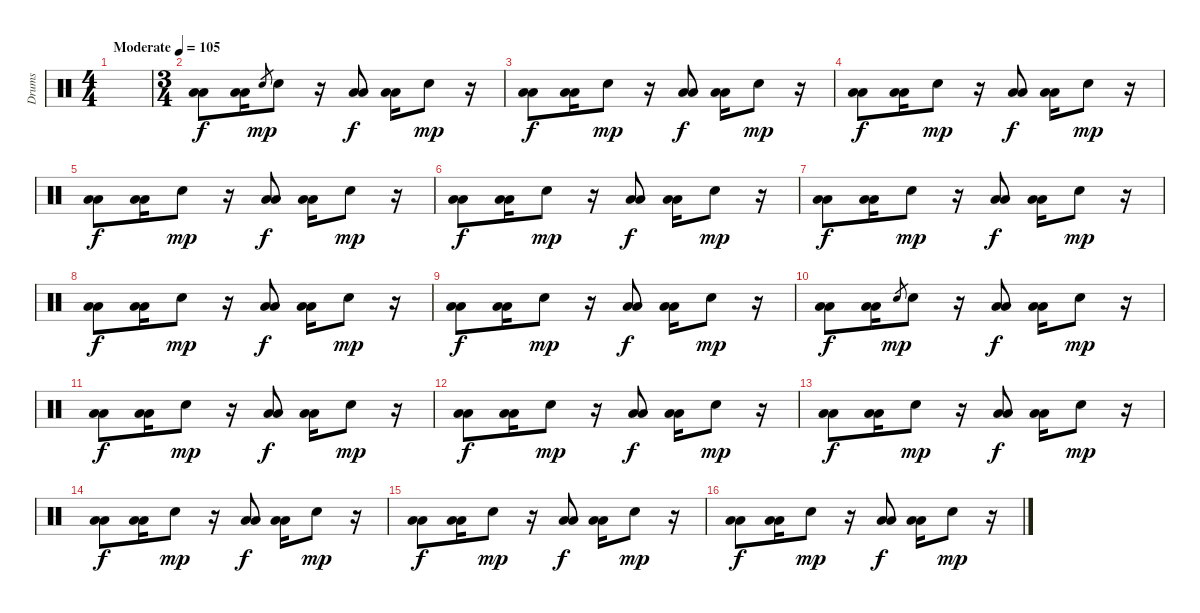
\track ("Drums" "Drums") {instrument percussion}
\staff {score}
\articulation defaults
\ts (4 4)
\tempo (105 "Moderate")
\clef neutral
\ks c
|
\ts (3 4)
("Low Floor Tom (hit)" "Low Floor Tom (hit)").8 ("Low Floor Tom (hit)" "Low Floor Tom (hit)").16 "Hand Clap (hit)".8{gr dy mp} "Hand Clap (hit)".8 r.16 ("Low Floor Tom (hit)" "Low Floor Tom (hit)").8{dy f} ("Low Floor Tom (hit)" "Low Floor Tom (hit)").16 "Hand Clap (hit)".8{dy mp} r.16 |
("Low Floor Tom (hit)" "Low Floor Tom (hit)").8{dy f} ("Low Floor Tom (hit)" "Low Floor Tom (hit)").16 "Hand Clap (hit)".8{dy mp} r.16 ("Low Floor Tom (hit)" "Low Floor Tom (hit)").8{dy f} ("Low Floor Tom (hit)" "Low Floor Tom (hit)").16 "Hand Clap (hit)".8{dy mp} r.16 |
("Low Floor Tom (hit)" "Low Floor Tom (hit)").8{dy f} ("Low Floor Tom (hit)" "Low Floor Tom (hit)").16 "Hand Clap (hit)".8{dy mp} r.16 ("Low Floor Tom (hit)" "Low Floor Tom (hit)").8{dy f} ("Low Floor Tom (hit)" "Low Floor Tom (hit)").16 "Hand Clap (hit)".8{dy mp} r.16 |
("Low Floor Tom (hit)" "Low Floor Tom (hit)").8{dy f} ("Low Floor Tom (hit)" "Low Floor Tom (hit)").16 "Hand Clap (hit)".8{dy mp} r.16 ("Low Floor Tom (hit)" "Low Floor Tom (hit)").8{dy f} ("Low Floor Tom (hit)" "Low Floor Tom (hit)").16 "Hand Clap (hit)".8{dy mp} r.16 |
("Low Floor Tom (hit)" "Low Floor Tom (hit)").8{dy f} ("Low Floor Tom (hit)" "Low Floor Tom (hit)").16 "Hand Clap (hit)".8{dy mp} r.16 ("Low Floor Tom (hit)" "Low Floor Tom (hit)").8{dy f} ("Low Floor Tom (hit)" "Low Floor Tom (hit)").16 "Hand Clap (hit)".8{dy mp} r.16 |
("Low Floor Tom (hit)" "Low Floor Tom (hit)").8{dy f} ("Low Floor Tom (hit)" "Low Floor Tom (hit)").16 "Hand Clap (hit)".8{dy mp} r.16 ("Low Floor Tom (hit)" "Low Floor Tom (hit)").8{dy f} ("Low Floor Tom (hit)" "Low Floor Tom (hit)").16 "Hand Clap (hit)".8{dy mp} r.16 |
("Low Floor Tom (hit)" "Low Floor Tom (hit)").8{dy f} ("Low Floor Tom (hit)" "Low Floor Tom (hit)").16 "Hand Clap (hit)".8{dy mp} r.16 ("Low Floor Tom (hit)" "Low Floor Tom (hit)").8{dy f} ("Low Floor Tom (hit)" "Low Floor Tom (hit)").16 "Hand Clap (hit)".8{dy mp} r.16 |
("Low Floor Tom (hit)" "Low Floor Tom (hit)").8{dy f} ("Low Floor Tom (hit)" "Low Floor Tom (hit)").16 "Hand Clap (hit)".8{dy mp} r.16 ("Low Floor Tom (hit)" "Low Floor Tom (hit)").8{dy f} ("Low Floor Tom (hit)" "Low Floor Tom (hit)").16 "Hand Clap (hit)".8{dy mp} r.16 |
("Low Floor Tom (hit)" "Low Floor Tom (hit)").8{dy f} ("Low Floor Tom (hit)" "Low Floor Tom (hit)").16 "Hand Clap (hit)".8{gr dy mp} "Hand Clap (hit)".8 r.16 ("Low Floor Tom (hit)" "Low Floor Tom (hit)").8{dy f} ("Low Floor Tom (hit)" "Low Floor Tom (hit)").16 "Hand Clap (hit)".8{dy mp} r.16 |
("Low Floor Tom (hit)" "Low Floor Tom (hit)").8{dy f} ("Low Floor Tom (hit)" "Low Floor Tom (hit)").16 "Hand Clap (hit)".8{dy mp} r.16 ("Low Floor Tom (hit)" "Low Floor Tom (hit)").8{dy f} ("Low Floor Tom (hit)" "Low Floor Tom (hit)").16 "Hand Clap (hit)".8{dy mp} r.16 |
("Low Floor Tom (hit)" "Low Floor Tom (hit)").8{dy f} ("Low Floor Tom (hit)" "Low Floor Tom (hit)").16 "Hand Clap (hit)".8{dy mp} r.16 ("Low Floor Tom (hit)" "Low Floor Tom (hit)").8{dy f} ("Low Floor Tom (hit)" "Low Floor Tom (hit)").16 "Hand Clap (hit)".8{dy mp} r.16 |
("Low Floor Tom (hit)" "Low Floor Tom (hit)").8{dy f} ("Low Floor Tom (hit)" "Low Floor Tom (hit)").16 "Hand Clap (hit)".8{dy mp} r.16 ("Low Floor Tom (hit)" "Low Floor Tom (hit)").8{dy f} ("Low Floor Tom (hit)" "Low Floor Tom (hit)").16 "Hand Clap (hit)".8{dy mp} r.16 |
("Low Floor Tom (hit)" "Low Floor Tom (hit)").8{dy f} ("Low Floor Tom (hit)" "Low Floor Tom (hit)").16 "Hand Clap (hit)".8{dy mp} r.16 ("Low Floor Tom (hit)" "Low Floor Tom (hit)").8{dy f} ("Low Floor Tom (hit)" "Low Floor Tom (hit)").16 "Hand Clap (hit)".8{dy mp} r.16 |
("Low Floor Tom (hit)" "Low Floor Tom (hit)").8{dy f} ("Low Floor Tom (hit)" "Low Floor Tom (hit)").16 "Hand Clap (hit)".8{dy mp} r.16 ("Low Floor Tom (hit)" "Low Floor Tom (hit)").8{dy f} ("Low Floor Tom (hit)" "Low Floor Tom (hit)").16 "Hand Clap (hit)".8{dy mp} r.16 |
("Low Floor Tom (hit)" "Low Floor Tom (hit)").8{dy f} ("Low Floor Tom (hit)" "Low Floor Tom (hit)").16 "Hand Clap (hit)".8{dy mp} r.16 ("Low Floor Tom (hit)" "Low Floor Tom (hit)").8{dy f} ("Low Floor Tom (hit)" "Low Floor Tom (hit)").16 "Hand Clap (hit)".8{dy mp} r.16
